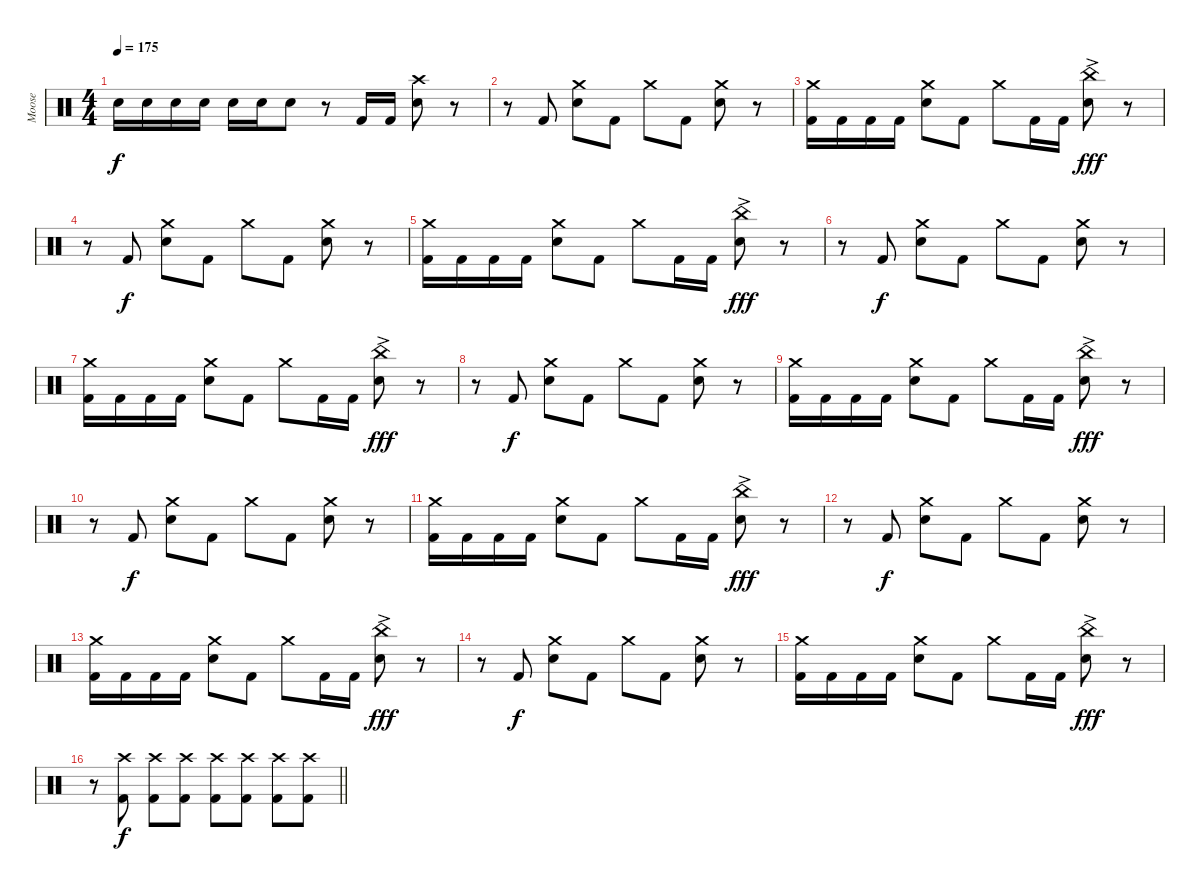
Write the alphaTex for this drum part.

\track ("Moose" "Moose") {instrument percussion}
\staff {score}
\articulation defaults
\ts (4 4)
\tempo 175
\clef neutral
\ks c "Electric Snare (hit)".16{dy f} "Electric Snare (hit)".16 "Electric Snare (hit)".16 "Electric Snare (hit)".16 "Electric Snare (hit)".16 "Electric Snare (hit)".16 "Electric Snare (hit)".8
r.8 "Kick (hit) 2".16 "Kick (hit) 2".16 ("Crash high (hit)" "Electric Snare (hit)").8 r.8 |
r.8 "Kick (hit) 2".8 ("Crash medium (hit)" "Electric Snare (hit)").8 "Kick (hit) 2".8 "Crash medium (hit)".8 "Kick (hit) 2".8 ("Crash medium (hit)" "Electric Snare (hit)").8 r.8 |
("Crash medium (hit)" "Kick (hit) 2").16 "Kick (hit) 2".16 "Kick (hit) 2".16 "Kick (hit) 2".16 ("Crash medium (hit)" "Electric Snare (hit)").8 "Kick (hit) 2".8 "Crash medium (hit)".8 "Kick (hit) 2".16 "Kick (hit) 2".16 ("China (hit)"{ac} "Electric Snare (hit)").8{dy fff} r.8 |
r.8 "Kick (hit) 2".8{dy f} ("Crash medium (hit)" "Electric Snare (hit)").8 "Kick (hit) 2".8 "Crash medium (hit)".8 "Kick (hit) 2".8 ("Crash medium (hit)" "Electric Snare (hit)").8 r.8 |
("Crash medium (hit)" "Kick (hit) 2").16 "Kick (hit) 2".16 "Kick (hit) 2".16 "Kick (hit) 2".16 ("Crash medium (hit)" "Electric Snare (hit)").8 "Kick (hit) 2".8 "Crash medium (hit)".8 "Kick (hit) 2".16 "Kick (hit) 2".16 ("China (hit)"{ac} "Electric Snare (hit)").8{dy fff} r.8 |
r.8 "Kick (hit) 2".8{dy f} ("Crash medium (hit)" "Electric Snare (hit)").8 "Kick (hit) 2".8 "Crash medium (hit)".8 "Kick (hit) 2".8 ("Crash medium (hit)" "Electric Snare (hit)").8 r.8 |
("Crash medium (hit)" "Kick (hit) 2").16 "Kick (hit) 2".16 "Kick (hit) 2".16 "Kick (hit) 2".16 ("Crash medium (hit)" "Electric Snare (hit)").8 "Kick (hit) 2".8 "Crash medium (hit)".8 "Kick (hit) 2".16 "Kick (hit) 2".16 ("China (hit)"{ac} "Electric Snare (hit)").8{dy fff} r.8 |
r.8 "Kick (hit) 2".8{dy f} ("Crash medium (hit)" "Electric Snare (hit)").8 "Kick (hit) 2".8 "Crash medium (hit)".8 "Kick (hit) 2".8 ("Crash medium (hit)" "Electric Snare (hit)").8 r.8 |
("Crash medium (hit)" "Kick (hit) 2").16 "Kick (hit) 2".16 "Kick (hit) 2".16 "Kick (hit) 2".16 ("Crash medium (hit)" "Electric Snare (hit)").8 "Kick (hit) 2".8 "Crash medium (hit)".8 "Kick (hit) 2".16 "Kick (hit) 2".16 ("China (hit)"{ac} "Electric Snare (hit)").8{dy fff} r.8 |
r.8 "Kick (hit) 2".8{dy f} ("Crash medium (hit)" "Electric Snare (hit)").8 "Kick (hit) 2".8 "Crash medium (hit)".8 "Kick (hit) 2".8 ("Crash medium (hit)" "Electric Snare (hit)").8 r.8 |
("Crash medium (hit)" "Kick (hit) 2").16 "Kick (hit) 2".16 "Kick (hit) 2".16 "Kick (hit) 2".16 ("Crash medium (hit)" "Electric Snare (hit)").8 "Kick (hit) 2".8 "Crash medium (hit)".8 "Kick (hit) 2".16 "Kick (hit) 2".16 ("China (hit)"{ac} "Electric Snare (hit)").8{dy fff} r.8 |
r.8 "Kick (hit) 2".8{dy f} ("Crash medium (hit)" "Electric Snare (hit)").8 "Kick (hit) 2".8 "Crash medium (hit)".8 "Kick (hit) 2".8 ("Crash medium (hit)" "Electric Snare (hit)").8 r.8 |
("Crash medium (hit)" "Kick (hit) 2").16 "Kick (hit) 2".16 "Kick (hit) 2".16 "Kick (hit) 2".16 ("Crash medium (hit)" "Electric Snare (hit)").8 "Kick (hit) 2".8 "Crash medium (hit)".8 "Kick (hit) 2".16 "Kick (hit) 2".16 ("China (hit)"{ac} "Electric Snare (hit)").8{dy fff} r.8 |
r.8 "Kick (hit) 2".8{dy f} ("Crash medium (hit)" "Electric Snare (hit)").8 "Kick (hit) 2".8 "Crash medium (hit)".8 "Kick (hit) 2".8 ("Crash medium (hit)" "Electric Snare (hit)").8 r.8 |
("Crash medium (hit)" "Kick (hit) 2").16 "Kick (hit) 2".16 "Kick (hit) 2".16 "Kick (hit) 2".16 ("Crash medium (hit)" "Electric Snare (hit)").8 "Kick (hit) 2".8 "Crash medium (hit)".8 "Kick (hit) 2".16 "Kick (hit) 2".16 ("China (hit)"{ac} "Electric Snare (hit)").8{dy fff} r.8 |
\barLineRight lightlight
r.8 ("Crash high (hit)" "Kick (hit) 2").8{dy f} ("Crash high (hit)" "Kick (hit) 2").8 ("Crash high (hit)" "Kick (hit) 2").8 ("Crash high (hit)" "Kick (hit) 2").8 ("Crash high (hit)" "Kick (hit) 2").8 ("Crash high (hit)" "Kick (hit) 2").8 ("Crash high (hit)" "Kick (hit) 2").8
